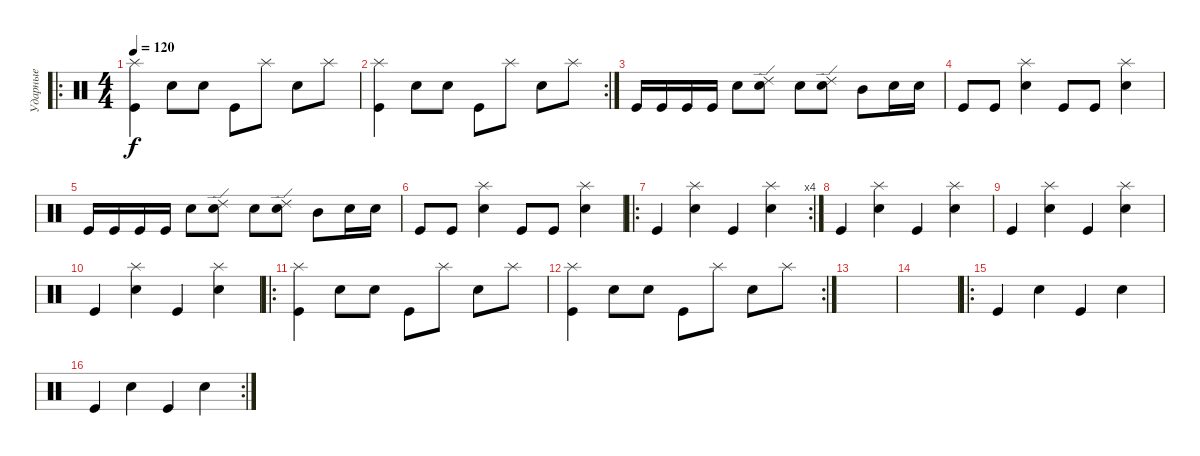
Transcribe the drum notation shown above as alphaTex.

\track ("Ударные" "Ударные") {instrument percussion}
\staff {score}
\articulation defaults
\ro
\ts (4 4)
\tempo 120
\clef neutral
\ks c
("Kick (hit)" "Splash (hit)").4{dy f} "Electric Snare (hit)".8 "Electric Snare (hit)".8 "Kick (hit)".8 "Splash (hit)".8 "Electric Snare (hit)".8 "Splash (hit)".8 |
\rc 2
("Kick (hit)" "Splash (hit)").4 "Electric Snare (hit)".8 "Electric Snare (hit)".8 "Kick (hit)".8 "Splash (hit)".8 "Electric Snare (hit)".8 "Splash (hit)".8 |
"Kick (hit)".16 "Kick (hit)".16 "Kick (hit)".16 "Kick (hit)".16 "Electric Snare (hit)".8 ("Electric Snare (hit)" "Ride (edge) 2").8 "Electric Snare (hit)".8 ("Electric Snare (hit)" "Ride (edge) 2").8 "Mid Tom (hit)".8 "Electric Snare (hit)".16 "Electric Snare (hit)".16 |
"Kick (hit)".8 "Kick (hit)".8 ("Electric Snare (hit)" "Splash (hit)").4 "Kick (hit)".8 "Kick (hit)".8 ("Electric Snare (hit)" "Splash (hit)").4 |
"Kick (hit)".16 "Kick (hit)".16 "Kick (hit)".16 "Kick (hit)".16 "Electric Snare (hit)".8 ("Electric Snare (hit)" "Ride (edge) 2").8 "Electric Snare (hit)".8 ("Electric Snare (hit)" "Ride (edge) 2").8 "Mid Tom (hit)".8 "Electric Snare (hit)".16 "Electric Snare (hit)".16 |
"Kick (hit)".8 "Kick (hit)".8 ("Electric Snare (hit)" "Splash (hit)").4 "Kick (hit)".8 "Kick (hit)".8 ("Electric Snare (hit)" "Splash (hit)").4 |
\ro
\rc 4 "Kick (hit)".4
("Electric Snare (hit)" "Splash (hit)").4 "Kick (hit)".4 ("Electric Snare (hit)" "Splash (hit)").4 |
"Kick (hit)".4 ("Electric Snare (hit)" "Splash (hit)").4 "Kick (hit)".4 ("Electric Snare (hit)" "Splash (hit)").4 |
"Kick (hit)".4 ("Electric Snare (hit)" "Splash (hit)").4 "Kick (hit)".4 ("Electric Snare (hit)" "Splash (hit)").4 |
"Kick (hit)".4 ("Electric Snare (hit)" "Splash (hit)").4 "Kick (hit)".4 ("Electric Snare (hit)" "Splash (hit)").4 |
\ro
("Kick (hit)" "Splash (hit)").4 "Electric Snare (hit)".8 "Electric Snare (hit)".8 "Kick (hit)".8 "Splash (hit)".8 "Electric Snare (hit)".8 "Splash (hit)".8 |
\rc 2
("Kick (hit)" "Splash (hit)").4 "Electric Snare (hit)".8 "Electric Snare (hit)".8 "Kick (hit)".8 "Splash (hit)".8 "Electric Snare (hit)".8 "Splash (hit)".8 |
|
|
\ro "Kick (hit)".4 "Electric Snare (hit)".4 "Kick (hit)".4 "Electric Snare (hit)".4
|
\rc 2 "Kick (hit)".4 "Electric Snare (hit)".4 "Kick (hit)".4 "Electric Snare (hit)".4
